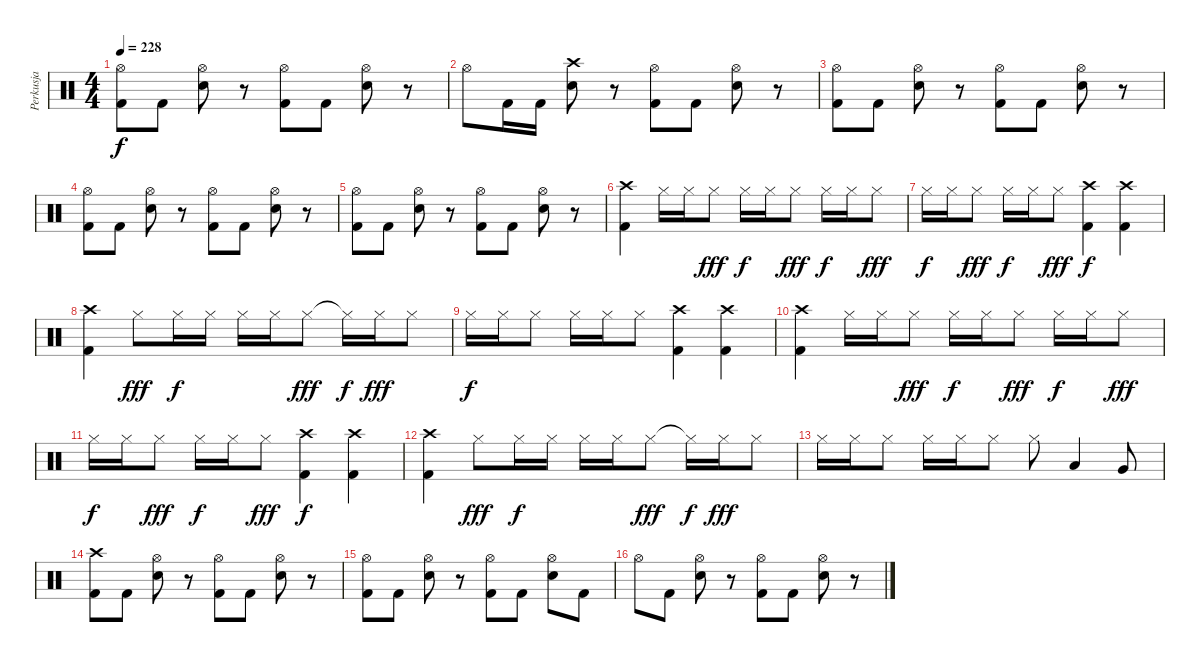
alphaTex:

\track ("Perkusja" "Perkusja") {instrument percussion bank 10}
\staff {score}
\articulation defaults
\ts (4 4)
\tempo 228
\clef neutral
\ks c
("Hi-Hat (open)" "Kick (hit) 2").8{dy f} "Kick (hit) 2".8 ("Hi-Hat (open)" "Snare (hit) 2").8 r.8 ("Hi-Hat (open)" "Kick (hit) 2").8 "Kick (hit) 2".8 ("Hi-Hat (open)" "Snare (hit) 2").8 r.8 |
"Hi-Hat (open)".8 "Kick (hit) 2".16 "Kick (hit) 2".16 ("Crash high (hit)" "Snare (hit) 2").8 r.8 ("Hi-Hat (open)" "Kick (hit) 2").8 "Kick (hit) 2".8 ("Hi-Hat (open)" "Snare (hit) 2").8 r.8 |
("Hi-Hat (open)" "Kick (hit) 2").8 "Kick (hit) 2".8 ("Hi-Hat (open)" "Snare (hit) 2").8 r.8 ("Hi-Hat (open)" "Kick (hit) 2").8 "Kick (hit) 2".8 ("Hi-Hat (open)" "Snare (hit) 2").8 r.8 |
("Hi-Hat (open)" "Kick (hit) 2").8 "Kick (hit) 2".8 ("Hi-Hat (open)" "Snare (hit) 2").8 r.8 ("Hi-Hat (open)" "Kick (hit) 2").8 "Kick (hit) 2".8 ("Hi-Hat (open)" "Snare (hit) 2").8 r.8 |
("Hi-Hat (open)" "Kick (hit) 2").8 "Kick (hit) 2".8 ("Hi-Hat (open)" "Snare (hit) 2").8 r.8 ("Hi-Hat (open)" "Kick (hit) 2").8 "Kick (hit) 2".8 ("Hi-Hat (open)" "Snare (hit) 2").8 r.8 |
("Crash high (hit)" "Kick (hit) 2").4 "Hi-Hat (closed)".16 "Hi-Hat (closed)".16 "Hi-Hat (closed)".8{dy fff} "Hi-Hat (closed)".16{dy f} "Hi-Hat (closed)".16 "Hi-Hat (closed)".8{dy fff} "Hi-Hat (closed)".16{dy f} "Hi-Hat (closed)".16 "Hi-Hat (closed)".8{dy fff} |
"Hi-Hat (closed)".16{dy f} "Hi-Hat (closed)".16 "Hi-Hat (closed)".8{dy fff} "Hi-Hat (closed)".16{dy f} "Hi-Hat (closed)".16 "Hi-Hat (closed)".8{dy fff} ("Crash high (hit)" "Kick (hit) 2").4{dy f} ("Crash high (hit)" "Kick (hit) 2").4 |
("Crash high (hit)" "Kick (hit) 2").4 "Hi-Hat (closed)".8{dy fff} "Hi-Hat (closed)".16{dy f} "Hi-Hat (closed)".16 "Hi-Hat (closed)".16 "Hi-Hat (closed)".16 "Hi-Hat (closed)".8{dy fff} "Hi-Hat (closed)"{t}.16{dy f} "Hi-Hat (closed)".16{dy fff} "Hi-Hat (closed)".8 |
"Hi-Hat (closed)".16{dy f} "Hi-Hat (closed)".16 "Hi-Hat (closed)".8 "Hi-Hat (closed)".16 "Hi-Hat (closed)".16 "Hi-Hat (closed)".8 ("Crash high (hit)" "Kick (hit) 2").4 ("Crash high (hit)" "Kick (hit) 2").4 |
("Crash high (hit)" "Kick (hit) 2").4 "Hi-Hat (closed)".16 "Hi-Hat (closed)".16 "Hi-Hat (closed)".8{dy fff} "Hi-Hat (closed)".16{dy f} "Hi-Hat (closed)".16 "Hi-Hat (closed)".8{dy fff} "Hi-Hat (closed)".16{dy f} "Hi-Hat (closed)".16 "Hi-Hat (closed)".8{dy fff} |
"Hi-Hat (closed)".16{dy f} "Hi-Hat (closed)".16 "Hi-Hat (closed)".8{dy fff} "Hi-Hat (closed)".16{dy f} "Hi-Hat (closed)".16 "Hi-Hat (closed)".8{dy fff} ("Crash high (hit)" "Kick (hit) 2").4{dy f} ("Crash high (hit)" "Kick (hit) 2").4 |
("Crash high (hit)" "Kick (hit) 2").4 "Hi-Hat (closed)".8{dy fff} "Hi-Hat (closed)".16{dy f} "Hi-Hat (closed)".16 "Hi-Hat (closed)".16 "Hi-Hat (closed)".16 "Hi-Hat (closed)".8{dy fff} "Hi-Hat (closed)"{t}.16{dy f} "Hi-Hat (closed)".16{dy fff} "Hi-Hat (closed)".8 |
"Hi-Hat (closed)".16 "Hi-Hat (closed)".16 "Hi-Hat (closed)".8 "Hi-Hat (closed)".16 "Hi-Hat (closed)".16 "Hi-Hat (closed)".8 "Hi-Hat (closed)".8 "Low Tom (hit)".4 "Very Low Tom (hit)".8 |
("Crash high (hit)" "Kick (hit) 2").8 "Kick (hit) 2".8 ("Hi-Hat (open)" "Snare (hit) 2").8 r.8 ("Hi-Hat (open)" "Kick (hit) 2").8 "Kick (hit) 2".8 ("Hi-Hat (open)" "Snare (hit) 2").8 r.8 |
("Hi-Hat (open)" "Kick (hit) 2").8 "Kick (hit) 2".8 ("Hi-Hat (open)" "Snare (hit) 2").8 r.8 ("Hi-Hat (open)" "Kick (hit) 2").8 "Kick (hit) 2".8 ("Hi-Hat (open)" "Snare (hit) 2").8 "Kick (hit) 2".8 |
"Hi-Hat (open)".8 "Kick (hit) 2".8 ("Hi-Hat (open)" "Snare (hit) 2").8 r.8 ("Hi-Hat (open)" "Kick (hit) 2").8 "Kick (hit) 2".8 ("Hi-Hat (open)" "Snare (hit) 2").8 r.8
